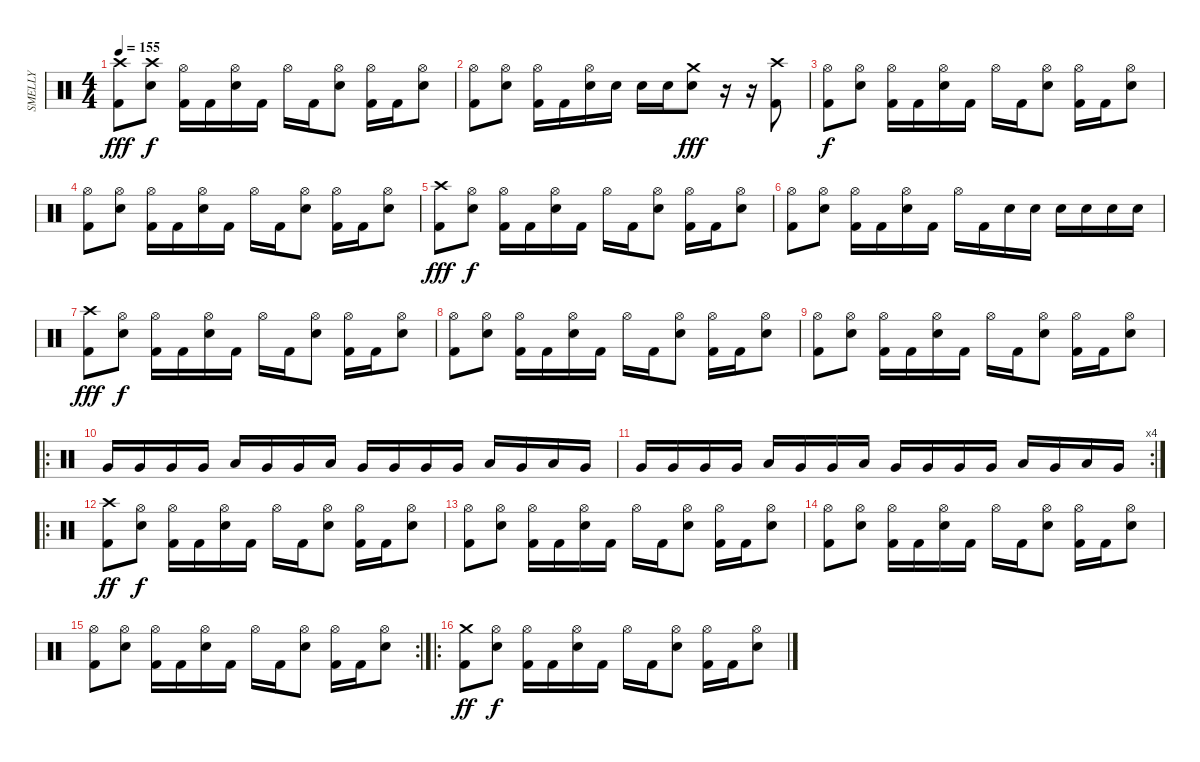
\track ("SMELLY" "SMELLY") {instrument percussion}
\staff {score}
\articulation defaults
\ts (4 4)
\tempo 155
\clef neutral
\ks c
("Crash high (hit)" "Kick (hit) 2").8{dy fff} ("Crash high (hit)" "Electric Snare (hit)").8{dy f} ("Hi-Hat (open)" "Kick (hit) 2").16 "Kick (hit) 2".16 ("Hi-Hat (open)" "Electric Snare (hit)").16 "Kick (hit) 2".16 "Hi-Hat (open)".16 "Kick (hit) 2".16 ("Hi-Hat (open)" "Electric Snare (hit)").8 ("Hi-Hat (open)" "Kick (hit) 2").16 "Kick (hit) 2".16 ("Hi-Hat (open)" "Electric Snare (hit)").8 |
("Hi-Hat (open)" "Kick (hit) 2").8 ("Hi-Hat (open)" "Electric Snare (hit)").8 ("Hi-Hat (open)" "Kick (hit) 2").16 "Kick (hit) 2".16 ("Hi-Hat (open)" "Electric Snare (hit)").16 "Electric Snare (hit)".16 "Electric Snare (hit)".16 "Electric Snare (hit)".16 ("Crash medium (hit)" "Electric Snare (hit)").8{dy fff} r.16 r.16 ("Crash high (hit)" "Kick (hit) 2").8 |
("Hi-Hat (open)" "Kick (hit) 2").8{dy f} ("Hi-Hat (open)" "Electric Snare (hit)").8 ("Hi-Hat (open)" "Kick (hit) 2").16 "Kick (hit) 2".16 ("Hi-Hat (open)" "Electric Snare (hit)").16 "Kick (hit) 2".16 "Hi-Hat (open)".16 "Kick (hit) 2".16 ("Hi-Hat (open)" "Electric Snare (hit)").8 ("Hi-Hat (open)" "Kick (hit) 2").16 "Kick (hit) 2".16 ("Hi-Hat (open)" "Electric Snare (hit)").8 |
("Hi-Hat (open)" "Kick (hit) 2").8 ("Hi-Hat (open)" "Electric Snare (hit)").8 ("Hi-Hat (open)" "Kick (hit) 2").16 "Kick (hit) 2".16 ("Hi-Hat (open)" "Electric Snare (hit)").16 "Kick (hit) 2".16 "Hi-Hat (open)".16 "Kick (hit) 2".16 ("Hi-Hat (open)" "Electric Snare (hit)").8 ("Hi-Hat (open)" "Kick (hit) 2").16 "Kick (hit) 2".16 ("Hi-Hat (open)" "Electric Snare (hit)").8 |
("Crash high (hit)" "Kick (hit) 2").8{dy fff} ("Hi-Hat (open)" "Electric Snare (hit)").8{dy f} ("Hi-Hat (open)" "Kick (hit) 2").16 "Kick (hit) 2".16 ("Hi-Hat (open)" "Electric Snare (hit)").16 "Kick (hit) 2".16 "Hi-Hat (open)".16 "Kick (hit) 2".16 ("Hi-Hat (open)" "Electric Snare (hit)").8 ("Hi-Hat (open)" "Kick (hit) 2").16 "Kick (hit) 2".16 ("Hi-Hat (open)" "Electric Snare (hit)").8 |
("Hi-Hat (open)" "Kick (hit) 2").8 ("Hi-Hat (open)" "Electric Snare (hit)").8 ("Hi-Hat (open)" "Kick (hit) 2").16 "Kick (hit) 2".16 ("Hi-Hat (open)" "Electric Snare (hit)").16 "Kick (hit) 2".16 "Hi-Hat (open)".16 "Kick (hit) 2".16 "Electric Snare (hit)".16 "Electric Snare (hit)".16 "Electric Snare (hit)".16 "Electric Snare (hit)".16 "Electric Snare (hit)".16 "Electric Snare (hit)".16 |
("Crash high (hit)" "Kick (hit) 2").8{dy fff} ("Hi-Hat (open)" "Electric Snare (hit)").8{dy f} ("Hi-Hat (open)" "Kick (hit) 2").16 "Kick (hit) 2".16 ("Hi-Hat (open)" "Electric Snare (hit)").16 "Kick (hit) 2".16 "Hi-Hat (open)".16 "Kick (hit) 2".16 ("Hi-Hat (open)" "Electric Snare (hit)").8 ("Hi-Hat (open)" "Kick (hit) 2").16 "Kick (hit) 2".16 ("Hi-Hat (open)" "Electric Snare (hit)").8 |
("Hi-Hat (open)" "Kick (hit) 2").8 ("Hi-Hat (open)" "Electric Snare (hit)").8 ("Hi-Hat (open)" "Kick (hit) 2").16 "Kick (hit) 2".16 ("Hi-Hat (open)" "Electric Snare (hit)").16 "Kick (hit) 2".16 "Hi-Hat (open)".16 "Kick (hit) 2".16 ("Hi-Hat (open)" "Electric Snare (hit)").8 ("Hi-Hat (open)" "Kick (hit) 2").16 "Kick (hit) 2".16 ("Hi-Hat (open)" "Electric Snare (hit)").8 |
("Hi-Hat (open)" "Kick (hit) 2").8 ("Hi-Hat (open)" "Electric Snare (hit)").8 ("Hi-Hat (open)" "Kick (hit) 2").16 "Kick (hit) 2".16 ("Hi-Hat (open)" "Electric Snare (hit)").16 "Kick (hit) 2".16 "Hi-Hat (open)".16 "Kick (hit) 2".16 ("Hi-Hat (open)" "Electric Snare (hit)").8 ("Hi-Hat (open)" "Kick (hit) 2").16 "Kick (hit) 2".16 ("Hi-Hat (open)" "Electric Snare (hit)").8 |
\ro "Very Low Tom (hit)".16 "Very Low Tom (hit)".16 "Very Low Tom (hit)".16 "Very Low Tom (hit)".16 "Low Floor Tom (hit)".16 "Very Low Tom (hit)".16 "Very Low Tom (hit)".16 "Low Floor Tom (hit)".16 "Very Low Tom (hit)".16 "Very Low Tom (hit)".16 "Very Low Tom (hit)".16 "Very Low Tom (hit)".16 "Low Floor Tom (hit)".16 "Very Low Tom (hit)".16 "Low Floor Tom (hit)".16 "Very Low Tom (hit)".16
|
\rc 4 "Very Low Tom (hit)".16 "Very Low Tom (hit)".16 "Very Low Tom (hit)".16 "Very Low Tom (hit)".16 "Low Floor Tom (hit)".16 "Very Low Tom (hit)".16 "Very Low Tom (hit)".16 "Low Floor Tom (hit)".16 "Very Low Tom (hit)".16 "Very Low Tom (hit)".16 "Very Low Tom (hit)".16 "Very Low Tom (hit)".16 "Low Floor Tom (hit)".16 "Very Low Tom (hit)".16 "Low Floor Tom (hit)".16 "Very Low Tom (hit)".16
|
\ro
("Crash high (hit)" "Kick (hit) 2").8{dy ff} ("Hi-Hat (open)" "Electric Snare (hit)").8{dy f} ("Hi-Hat (open)" "Kick (hit) 2").16 "Kick (hit) 2".16 ("Hi-Hat (open)" "Electric Snare (hit)").16 "Kick (hit) 2".16 "Hi-Hat (open)".16 "Kick (hit) 2".16 ("Hi-Hat (open)" "Electric Snare (hit)").8 ("Hi-Hat (open)" "Kick (hit) 2").16 "Kick (hit) 2".16 ("Hi-Hat (open)" "Electric Snare (hit)").8 |
("Hi-Hat (open)" "Kick (hit) 2").8 ("Hi-Hat (open)" "Electric Snare (hit)").8 ("Hi-Hat (open)" "Kick (hit) 2").16 "Kick (hit) 2".16 ("Hi-Hat (open)" "Electric Snare (hit)").16 "Kick (hit) 2".16 "Hi-Hat (open)".16 "Kick (hit) 2".16 ("Hi-Hat (open)" "Electric Snare (hit)").8 ("Hi-Hat (open)" "Kick (hit) 2").16 "Kick (hit) 2".16 ("Hi-Hat (open)" "Electric Snare (hit)").8 |
("Hi-Hat (open)" "Kick (hit) 2").8 ("Hi-Hat (open)" "Electric Snare (hit)").8 ("Hi-Hat (open)" "Kick (hit) 2").16 "Kick (hit) 2".16 ("Hi-Hat (open)" "Electric Snare (hit)").16 "Kick (hit) 2".16 "Hi-Hat (open)".16 "Kick (hit) 2".16 ("Hi-Hat (open)" "Electric Snare (hit)").8 ("Hi-Hat (open)" "Kick (hit) 2").16 "Kick (hit) 2".16 ("Hi-Hat (open)" "Electric Snare (hit)").8 |
\rc 2
("Hi-Hat (open)" "Kick (hit) 2").8 ("Hi-Hat (open)" "Electric Snare (hit)").8 ("Hi-Hat (open)" "Kick (hit) 2").16 "Kick (hit) 2".16 ("Hi-Hat (open)" "Electric Snare (hit)").16 "Kick (hit) 2".16 "Hi-Hat (open)".16 "Kick (hit) 2".16 ("Hi-Hat (open)" "Electric Snare (hit)").8 ("Hi-Hat (open)" "Kick (hit) 2").16 "Kick (hit) 2".16 ("Hi-Hat (open)" "Electric Snare (hit)").8 |
\ro
("Crash medium (hit)" "Kick (hit) 2").8{dy ff} ("Hi-Hat (open)" "Electric Snare (hit)").8{dy f} ("Hi-Hat (open)" "Kick (hit) 2").16 "Kick (hit) 2".16 ("Hi-Hat (open)" "Electric Snare (hit)").16 "Kick (hit) 2".16 "Hi-Hat (open)".16 "Kick (hit) 2".16 ("Hi-Hat (open)" "Electric Snare (hit)").8 ("Hi-Hat (open)" "Kick (hit) 2").16 "Kick (hit) 2".16 ("Hi-Hat (open)" "Electric Snare (hit)").8
